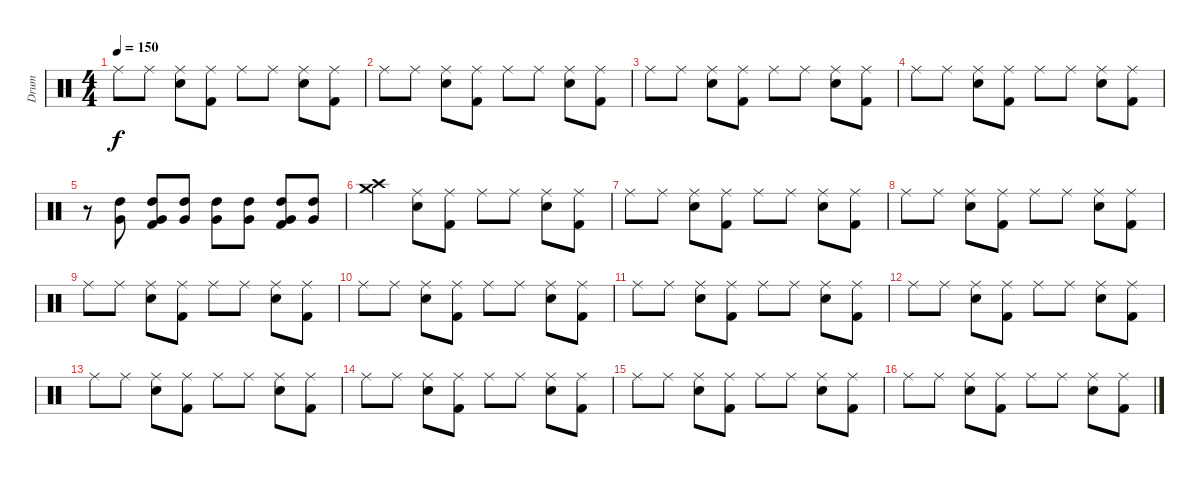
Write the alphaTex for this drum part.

\track ("Drum" "Drum") {instrument percussion}
\staff {score}
\articulation defaults
\ts (4 4)
\tempo 150
\clef neutral
\ks c "Ride (middle)".8{dy f} "Ride (middle)".8
("Ride (middle)" "Snare (hit) 2").8 ("Ride (middle)" "Kick (hit) 2").8 "Ride (middle)".8 "Ride (middle)".8 ("Ride (middle)" "Snare (hit) 2").8 ("Ride (middle)" "Kick (hit) 2").8 |
"Ride (middle)".8 "Ride (middle)".8 ("Ride (middle)" "Snare (hit) 2").8 ("Ride (middle)" "Kick (hit) 2").8 "Ride (middle)".8 "Ride (middle)".8 ("Ride (middle)" "Snare (hit) 2").8 ("Ride (middle)" "Kick (hit) 2").8 |
"Ride (middle)".8 "Ride (middle)".8 ("Ride (middle)" "Snare (hit) 2").8 ("Ride (middle)" "Kick (hit) 2").8 "Ride (middle)".8 "Ride (middle)".8 ("Ride (middle)" "Snare (hit) 2").8 ("Ride (middle)" "Kick (hit) 2").8 |
"Ride (middle)".8 "Ride (middle)".8 ("Ride (middle)" "Snare (hit) 2").8 ("Ride (middle)" "Kick (hit) 2").8 "Ride (middle)".8 "Ride (middle)".8 ("Ride (middle)" "Snare (hit) 2").8 ("Ride (middle)" "Kick (hit) 2").8 |
r.8 ("Very Low Tom (hit)" "High Tom (hit)").8 ("Very Low Tom (hit)" "High Tom (hit)" "Kick (hit) 2").8 ("Very Low Tom (hit)" "High Tom (hit)").8 ("Very Low Tom (hit)" "High Tom (hit)").8 ("Very Low Tom (hit)" "High Tom (hit)").8 ("Very Low Tom (hit)" "High Tom (hit)" "Kick (hit) 2").8 ("Very Low Tom (hit)" "High Tom (hit)").8 |
("Crash high (hit)" "Crash medium (hit)").4 ("Ride (middle)" "Snare (hit) 2").8 ("Ride (middle)" "Kick (hit) 2").8 "Ride (middle)".8 "Ride (middle)".8 ("Ride (middle)" "Snare (hit) 2").8 ("Ride (middle)" "Kick (hit) 2").8 |
"Ride (middle)".8 "Ride (middle)".8 ("Ride (middle)" "Snare (hit) 2").8 ("Ride (middle)" "Kick (hit) 2").8 "Ride (middle)".8 "Ride (middle)".8 ("Ride (middle)" "Snare (hit) 2").8 ("Ride (middle)" "Kick (hit) 2").8 |
"Ride (middle)".8 "Ride (middle)".8 ("Ride (middle)" "Snare (hit) 2").8 ("Ride (middle)" "Kick (hit) 2").8 "Ride (middle)".8 "Ride (middle)".8 ("Ride (middle)" "Snare (hit) 2").8 ("Ride (middle)" "Kick (hit) 2").8 |
"Ride (middle)".8 "Ride (middle)".8 ("Ride (middle)" "Snare (hit) 2").8 ("Ride (middle)" "Kick (hit) 2").8 "Ride (middle)".8 "Ride (middle)".8 ("Ride (middle)" "Snare (hit) 2").8 ("Ride (middle)" "Kick (hit) 2").8 |
"Ride (middle)".8 "Ride (middle)".8 ("Ride (middle)" "Snare (hit) 2").8 ("Ride (middle)" "Kick (hit) 2").8 "Ride (middle)".8 "Ride (middle)".8 ("Ride (middle)" "Snare (hit) 2").8 ("Ride (middle)" "Kick (hit) 2").8 |
"Ride (middle)".8 "Ride (middle)".8 ("Ride (middle)" "Snare (hit) 2").8 ("Ride (middle)" "Kick (hit) 2").8 "Ride (middle)".8 "Ride (middle)".8 ("Ride (middle)" "Snare (hit) 2").8 ("Ride (middle)" "Kick (hit) 2").8 |
"Ride (middle)".8 "Ride (middle)".8 ("Ride (middle)" "Snare (hit) 2").8 ("Ride (middle)" "Kick (hit) 2").8 "Ride (middle)".8 "Ride (middle)".8 ("Ride (middle)" "Snare (hit) 2").8 ("Ride (middle)" "Kick (hit) 2").8 |
"Ride (middle)".8 "Ride (middle)".8 ("Ride (middle)" "Snare (hit) 2").8 ("Ride (middle)" "Kick (hit) 2").8 "Ride (middle)".8 "Ride (middle)".8 ("Ride (middle)" "Snare (hit) 2").8 ("Ride (middle)" "Kick (hit) 2").8 |
"Ride (middle)".8 "Ride (middle)".8 ("Ride (middle)" "Snare (hit) 2").8 ("Ride (middle)" "Kick (hit) 2").8 "Ride (middle)".8 "Ride (middle)".8 ("Ride (middle)" "Snare (hit) 2").8 ("Ride (middle)" "Kick (hit) 2").8 |
"Ride (middle)".8 "Ride (middle)".8 ("Ride (middle)" "Snare (hit) 2").8 ("Ride (middle)" "Kick (hit) 2").8 "Ride (middle)".8 "Ride (middle)".8 ("Ride (middle)" "Snare (hit) 2").8 ("Ride (middle)" "Kick (hit) 2").8 |
"Ride (middle)".8 "Ride (middle)".8 ("Ride (middle)" "Snare (hit) 2").8 ("Ride (middle)" "Kick (hit) 2").8 "Ride (middle)".8 "Ride (middle)".8 ("Ride (middle)" "Snare (hit) 2").8 ("Ride (middle)" "Kick (hit) 2").8
